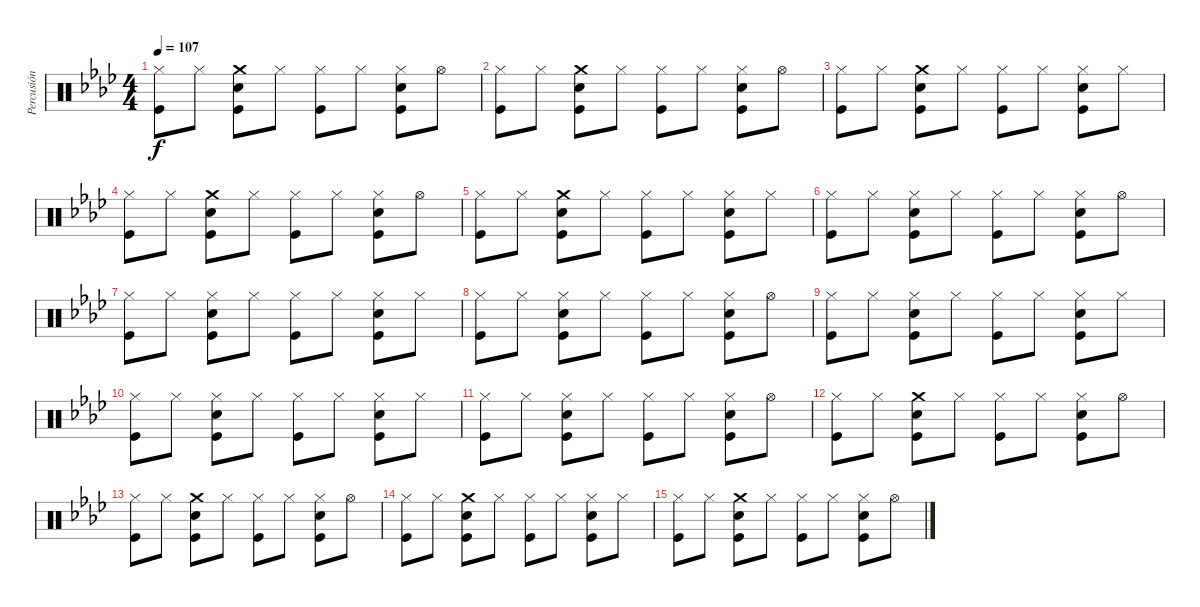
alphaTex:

\track ("Percusión" "Percusión") {instrument percussion}
\staff {score}
\articulation defaults
\ts (4 4)
\tempo 107
\clef neutral
\ks ab
("Hi-Hat (closed)" "Kick (hit)").8{dy f} "Hi-Hat (closed)".8 ("Crash medium (hit)" "Snare (hit) 2" "Kick (hit)").8 "Hi-Hat (closed)".8 ("Hi-Hat (closed)" "Kick (hit)").8 "Hi-Hat (closed)".8 ("Hi-Hat (closed)" "Snare (hit) 2" "Kick (hit)").8 "Hi-Hat (open)".8 |
("Hi-Hat (closed)" "Kick (hit)").8 "Hi-Hat (closed)".8 ("Crash medium (hit)" "Snare (hit) 2" "Kick (hit)").8 "Hi-Hat (closed)".8 ("Hi-Hat (closed)" "Kick (hit)").8 "Hi-Hat (closed)".8 ("Hi-Hat (closed)" "Snare (hit) 2" "Kick (hit)").8 "Hi-Hat (open)".8 |
("Hi-Hat (closed)" "Kick (hit)").8 "Hi-Hat (closed)".8 ("Crash medium (hit)" "Snare (hit) 2" "Kick (hit)").8 "Hi-Hat (closed)".8 ("Hi-Hat (closed)" "Kick (hit)").8 "Hi-Hat (closed)".8 ("Hi-Hat (closed)" "Snare (hit) 2" "Kick (hit)").8 "Hi-Hat (closed)".8 |
("Hi-Hat (closed)" "Kick (hit)").8 "Hi-Hat (closed)".8 ("Crash medium (hit)" "Snare (hit) 2" "Kick (hit)").8 "Hi-Hat (closed)".8 ("Hi-Hat (closed)" "Kick (hit)").8 "Hi-Hat (closed)".8 ("Hi-Hat (closed)" "Snare (hit) 2" "Kick (hit)").8 "Hi-Hat (open)".8 |
("Hi-Hat (closed)" "Kick (hit)").8 "Hi-Hat (closed)".8 ("Crash medium (hit)" "Snare (hit) 2" "Kick (hit)").8 "Hi-Hat (closed)".8 ("Hi-Hat (closed)" "Kick (hit)").8 "Hi-Hat (closed)".8 ("Hi-Hat (closed)" "Snare (hit) 2" "Kick (hit)").8 "Hi-Hat (closed)".8 |
("Hi-Hat (closed)" "Kick (hit)").8 "Hi-Hat (closed)".8 ("Hi-Hat (closed)" "Snare (hit) 2" "Kick (hit)").8 "Hi-Hat (closed)".8 ("Hi-Hat (closed)" "Kick (hit)").8 "Hi-Hat (closed)".8 ("Hi-Hat (closed)" "Snare (hit) 2" "Kick (hit)").8 "Hi-Hat (open)".8 |
("Hi-Hat (closed)" "Kick (hit)").8 "Hi-Hat (closed)".8 ("Hi-Hat (closed)" "Snare (hit) 2" "Kick (hit)").8 "Hi-Hat (closed)".8 ("Hi-Hat (closed)" "Kick (hit)").8 "Hi-Hat (closed)".8 ("Hi-Hat (closed)" "Snare (hit) 2" "Kick (hit)").8 "Hi-Hat (closed)".8 |
("Hi-Hat (closed)" "Kick (hit)").8 "Hi-Hat (closed)".8 ("Hi-Hat (closed)" "Snare (hit) 2" "Kick (hit)").8 "Hi-Hat (closed)".8 ("Hi-Hat (closed)" "Kick (hit)").8 "Hi-Hat (closed)".8 ("Hi-Hat (closed)" "Snare (hit) 2" "Kick (hit)").8 "Hi-Hat (open)".8 |
("Hi-Hat (closed)" "Kick (hit)").8 "Hi-Hat (closed)".8 ("Hi-Hat (closed)" "Snare (hit) 2" "Kick (hit)").8 "Hi-Hat (closed)".8 ("Hi-Hat (closed)" "Kick (hit)").8 "Hi-Hat (closed)".8 ("Hi-Hat (closed)" "Snare (hit) 2" "Kick (hit)").8 "Hi-Hat (closed)".8 |
("Hi-Hat (closed)" "Kick (hit)").8 "Hi-Hat (closed)".8 ("Hi-Hat (closed)" "Snare (hit) 2" "Kick (hit)").8 "Hi-Hat (closed)".8 ("Hi-Hat (closed)" "Kick (hit)").8 "Hi-Hat (closed)".8 ("Hi-Hat (closed)" "Snare (hit) 2" "Kick (hit)").8 "Hi-Hat (closed)".8 |
("Hi-Hat (closed)" "Kick (hit)").8 "Hi-Hat (closed)".8 ("Hi-Hat (closed)" "Snare (hit) 2" "Kick (hit)").8 "Hi-Hat (closed)".8 ("Hi-Hat (closed)" "Kick (hit)").8 "Hi-Hat (closed)".8 ("Hi-Hat (closed)" "Snare (hit) 2" "Kick (hit)").8 "Hi-Hat (open)".8 |
("Hi-Hat (closed)" "Kick (hit)").8 "Hi-Hat (closed)".8 ("Crash medium (hit)" "Snare (hit) 2" "Kick (hit)").8 "Hi-Hat (closed)".8 ("Hi-Hat (closed)" "Kick (hit)").8 "Hi-Hat (closed)".8 ("Hi-Hat (closed)" "Snare (hit) 2" "Kick (hit)").8 "Hi-Hat (open)".8 |
("Hi-Hat (closed)" "Kick (hit)").8 "Hi-Hat (closed)".8 ("Crash medium (hit)" "Snare (hit) 2" "Kick (hit)").8 "Hi-Hat (closed)".8 ("Hi-Hat (closed)" "Kick (hit)").8 "Hi-Hat (closed)".8 ("Hi-Hat (closed)" "Snare (hit) 2" "Kick (hit)").8 "Hi-Hat (open)".8 |
("Hi-Hat (closed)" "Kick (hit)").8 "Hi-Hat (closed)".8 ("Crash medium (hit)" "Snare (hit) 2" "Kick (hit)").8 "Hi-Hat (closed)".8 ("Hi-Hat (closed)" "Kick (hit)").8 "Hi-Hat (closed)".8 ("Hi-Hat (closed)" "Snare (hit) 2" "Kick (hit)").8 "Hi-Hat (closed)".8 |
("Hi-Hat (closed)" "Kick (hit)").8 "Hi-Hat (closed)".8 ("Crash medium (hit)" "Snare (hit) 2" "Kick (hit)").8 "Hi-Hat (closed)".8 ("Hi-Hat (closed)" "Kick (hit)").8 "Hi-Hat (closed)".8 ("Hi-Hat (closed)" "Snare (hit) 2" "Kick (hit)").8 "Hi-Hat (open)".8
